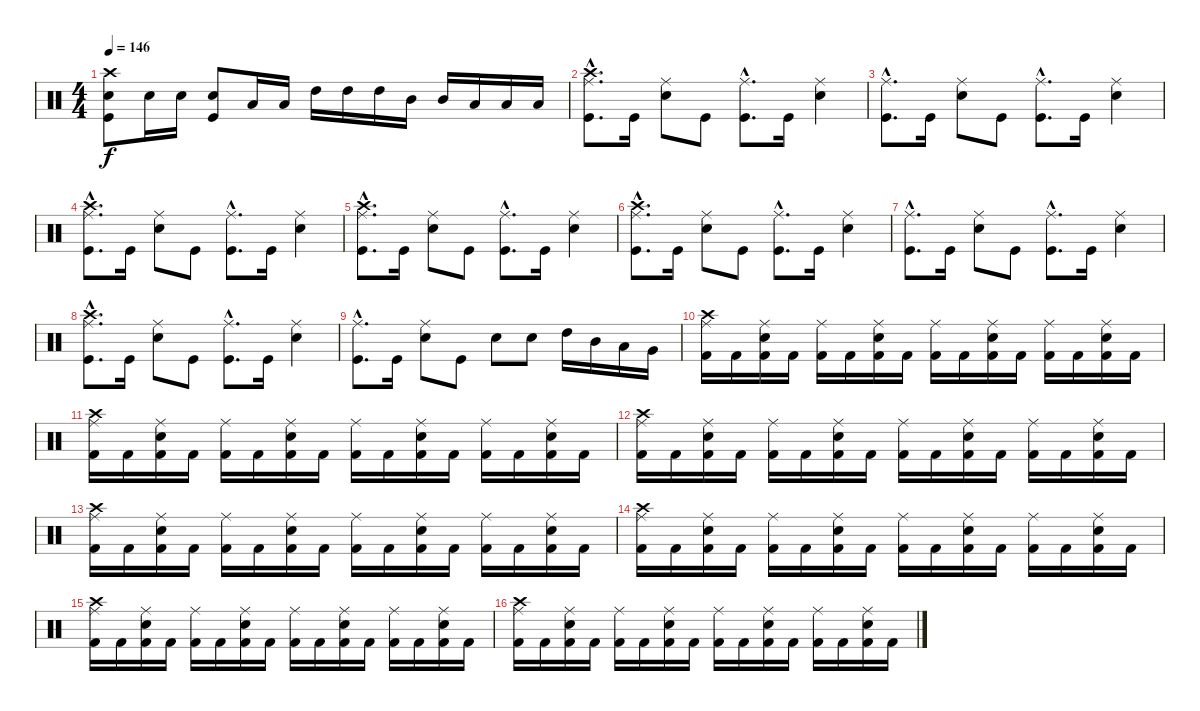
\track "" {instrument percussion}
\staff {score}
\articulation defaults
\ts (4 4)
\tempo 146
\clef neutral
\ks c
("Crash high (hit)" "Kick (hit)" "Snare (hit) 2").8{dy f} "Snare (hit) 2".16 "Snare (hit) 2".16 ("Snare (hit) 2" "Kick (hit)").8 "Low Tom (hit)".16 "Low Tom (hit)".16 "High Tom (hit)".16 "High Tom (hit)".16 "High Tom (hit)".16 "Mid Tom (hit)".16 "Mid Tom (hit)".16 "Low Tom (hit)".16 "Low Tom (hit)".16 "Low Tom (hit)".16 |
("Kick (hit)"{hac} "Crash high (hit)"{hac} "Ride (middle)"{hac}).8{d} "Kick (hit)".16 ("Snare (hit) 2" "Ride (middle)").8 "Kick (hit)".8 ("Kick (hit)"{hac} "Ride (middle)"{hac}).8{d} "Kick (hit)".16 ("Snare (hit) 2" "Ride (middle)").4 |
("Kick (hit)"{hac} "Ride (middle)"{hac}).8{d} "Kick (hit)".16 ("Snare (hit) 2" "Ride (middle)").8 "Kick (hit)".8 ("Kick (hit)"{hac} "Ride (middle)"{hac}).8{d} "Kick (hit)".16 ("Snare (hit) 2" "Ride (middle)").4 |
("Kick (hit)"{hac} "Crash high (hit)"{hac} "Ride (middle)"{hac}).8{d} "Kick (hit)".16 ("Snare (hit) 2" "Ride (middle)").8 "Kick (hit)".8 ("Kick (hit)"{hac} "Ride (middle)"{hac}).8{d} "Kick (hit)".16 ("Snare (hit) 2" "Ride (middle)").4 |
("Kick (hit)"{hac} "Crash high (hit)"{hac} "Ride (middle)"{hac}).8{d} "Kick (hit)".16 ("Snare (hit) 2" "Ride (middle)").8 "Kick (hit)".8 ("Kick (hit)"{hac} "Ride (middle)"{hac}).8{d} "Kick (hit)".16 ("Snare (hit) 2" "Ride (middle)").4 |
("Kick (hit)"{hac} "Crash high (hit)"{hac} "Ride (middle)"{hac}).8{d} "Kick (hit)".16 ("Snare (hit) 2" "Ride (middle)").8 "Kick (hit)".8 ("Kick (hit)"{hac} "Ride (middle)"{hac}).8{d} "Kick (hit)".16 ("Snare (hit) 2" "Ride (middle)").4 |
("Kick (hit)"{hac} "Ride (middle)"{hac}).8{d} "Kick (hit)".16 ("Snare (hit) 2" "Ride (middle)").8 "Kick (hit)".8 ("Kick (hit)"{hac} "Ride (middle)"{hac}).8{d} "Kick (hit)".16 ("Snare (hit) 2" "Ride (middle)").4 |
("Kick (hit)"{hac} "Crash high (hit)"{hac} "Ride (middle)"{hac}).8{d} "Kick (hit)".16 ("Snare (hit) 2" "Ride (middle)").8 "Kick (hit)".8 ("Kick (hit)"{hac} "Ride (middle)"{hac}).8{d} "Kick (hit)".16 ("Snare (hit) 2" "Ride (middle)").4 |
("Kick (hit)"{hac} "Ride (middle)"{hac}).8{d} "Kick (hit)".16 ("Snare (hit) 2" "Ride (middle)").8 "Kick (hit)".8 "Snare (hit) 2".8 "Snare (hit) 2".8 "High Tom (hit)".16 "Mid Tom (hit)".16 "Low Tom (hit)".16 "Very Low Tom (hit)".16 |
("Crash high (hit)" "Ride (middle)" "Kick (hit) 2").16 "Kick (hit) 2".16 ("Electric Snare (hit)" "Ride (middle)" "Kick (hit) 2").16 "Kick (hit) 2".16 ("Ride (middle)" "Kick (hit) 2").16 "Kick (hit) 2".16 ("Electric Snare (hit)" "Ride (middle)" "Kick (hit) 2").16 "Kick (hit) 2".16 ("Ride (middle)" "Kick (hit) 2").16 "Kick (hit) 2".16 ("Electric Snare (hit)" "Ride (middle)" "Kick (hit) 2").16 "Kick (hit) 2".16 ("Ride (middle)" "Kick (hit) 2").16 "Kick (hit) 2".16 ("Electric Snare (hit)" "Ride (middle)" "Kick (hit) 2").16 "Kick (hit) 2".16 |
("Crash high (hit)" "Ride (middle)" "Kick (hit) 2").16 "Kick (hit) 2".16 ("Electric Snare (hit)" "Ride (middle)" "Kick (hit) 2").16 "Kick (hit) 2".16 ("Ride (middle)" "Kick (hit) 2").16 "Kick (hit) 2".16 ("Electric Snare (hit)" "Ride (middle)" "Kick (hit) 2").16 "Kick (hit) 2".16 ("Ride (middle)" "Kick (hit) 2").16 "Kick (hit) 2".16 ("Electric Snare (hit)" "Ride (middle)" "Kick (hit) 2").16 "Kick (hit) 2".16 ("Ride (middle)" "Kick (hit) 2").16 "Kick (hit) 2".16 ("Electric Snare (hit)" "Ride (middle)" "Kick (hit) 2").16 "Kick (hit) 2".16 |
("Crash high (hit)" "Ride (middle)" "Kick (hit) 2").16 "Kick (hit) 2".16 ("Electric Snare (hit)" "Ride (middle)" "Kick (hit) 2").16 "Kick (hit) 2".16 ("Ride (middle)" "Kick (hit) 2").16 "Kick (hit) 2".16 ("Electric Snare (hit)" "Ride (middle)" "Kick (hit) 2").16 "Kick (hit) 2".16 ("Ride (middle)" "Kick (hit) 2").16 "Kick (hit) 2".16 ("Electric Snare (hit)" "Ride (middle)" "Kick (hit) 2").16 "Kick (hit) 2".16 ("Ride (middle)" "Kick (hit) 2").16 "Kick (hit) 2".16 ("Electric Snare (hit)" "Ride (middle)" "Kick (hit) 2").16 "Kick (hit) 2".16 |
("Crash high (hit)" "Ride (middle)" "Kick (hit) 2").16 "Kick (hit) 2".16 ("Electric Snare (hit)" "Ride (middle)" "Kick (hit) 2").16 "Kick (hit) 2".16 ("Ride (middle)" "Kick (hit) 2").16 "Kick (hit) 2".16 ("Electric Snare (hit)" "Ride (middle)" "Kick (hit) 2").16 "Kick (hit) 2".16 ("Ride (middle)" "Kick (hit) 2").16 "Kick (hit) 2".16 ("Electric Snare (hit)" "Ride (middle)" "Kick (hit) 2").16 "Kick (hit) 2".16 ("Ride (middle)" "Kick (hit) 2").16 "Kick (hit) 2".16 ("Electric Snare (hit)" "Ride (middle)" "Kick (hit) 2").16 "Kick (hit) 2".16 |
("Crash high (hit)" "Ride (middle)" "Kick (hit) 2").16 "Kick (hit) 2".16 ("Electric Snare (hit)" "Ride (middle)" "Kick (hit) 2").16 "Kick (hit) 2".16 ("Ride (middle)" "Kick (hit) 2").16 "Kick (hit) 2".16 ("Electric Snare (hit)" "Ride (middle)" "Kick (hit) 2").16 "Kick (hit) 2".16 ("Ride (middle)" "Kick (hit) 2").16 "Kick (hit) 2".16 ("Electric Snare (hit)" "Ride (middle)" "Kick (hit) 2").16 "Kick (hit) 2".16 ("Ride (middle)" "Kick (hit) 2").16 "Kick (hit) 2".16 ("Electric Snare (hit)" "Ride (middle)" "Kick (hit) 2").16 "Kick (hit) 2".16 |
("Crash high (hit)" "Ride (middle)" "Kick (hit) 2").16 "Kick (hit) 2".16 ("Electric Snare (hit)" "Ride (middle)" "Kick (hit) 2").16 "Kick (hit) 2".16 ("Ride (middle)" "Kick (hit) 2").16 "Kick (hit) 2".16 ("Electric Snare (hit)" "Ride (middle)" "Kick (hit) 2").16 "Kick (hit) 2".16 ("Ride (middle)" "Kick (hit) 2").16 "Kick (hit) 2".16 ("Electric Snare (hit)" "Ride (middle)" "Kick (hit) 2").16 "Kick (hit) 2".16 ("Ride (middle)" "Kick (hit) 2").16 "Kick (hit) 2".16 ("Electric Snare (hit)" "Ride (middle)" "Kick (hit) 2").16 "Kick (hit) 2".16 |
("Crash high (hit)" "Ride (middle)" "Kick (hit) 2").16 "Kick (hit) 2".16 ("Electric Snare (hit)" "Ride (middle)" "Kick (hit) 2").16 "Kick (hit) 2".16 ("Ride (middle)" "Kick (hit) 2").16 "Kick (hit) 2".16 ("Electric Snare (hit)" "Ride (middle)" "Kick (hit) 2").16 "Kick (hit) 2".16 ("Ride (middle)" "Kick (hit) 2").16 "Kick (hit) 2".16 ("Electric Snare (hit)" "Ride (middle)" "Kick (hit) 2").16 "Kick (hit) 2".16 ("Ride (middle)" "Kick (hit) 2").16 "Kick (hit) 2".16 ("Electric Snare (hit)" "Ride (middle)" "Kick (hit) 2").16 "Kick (hit) 2".16
